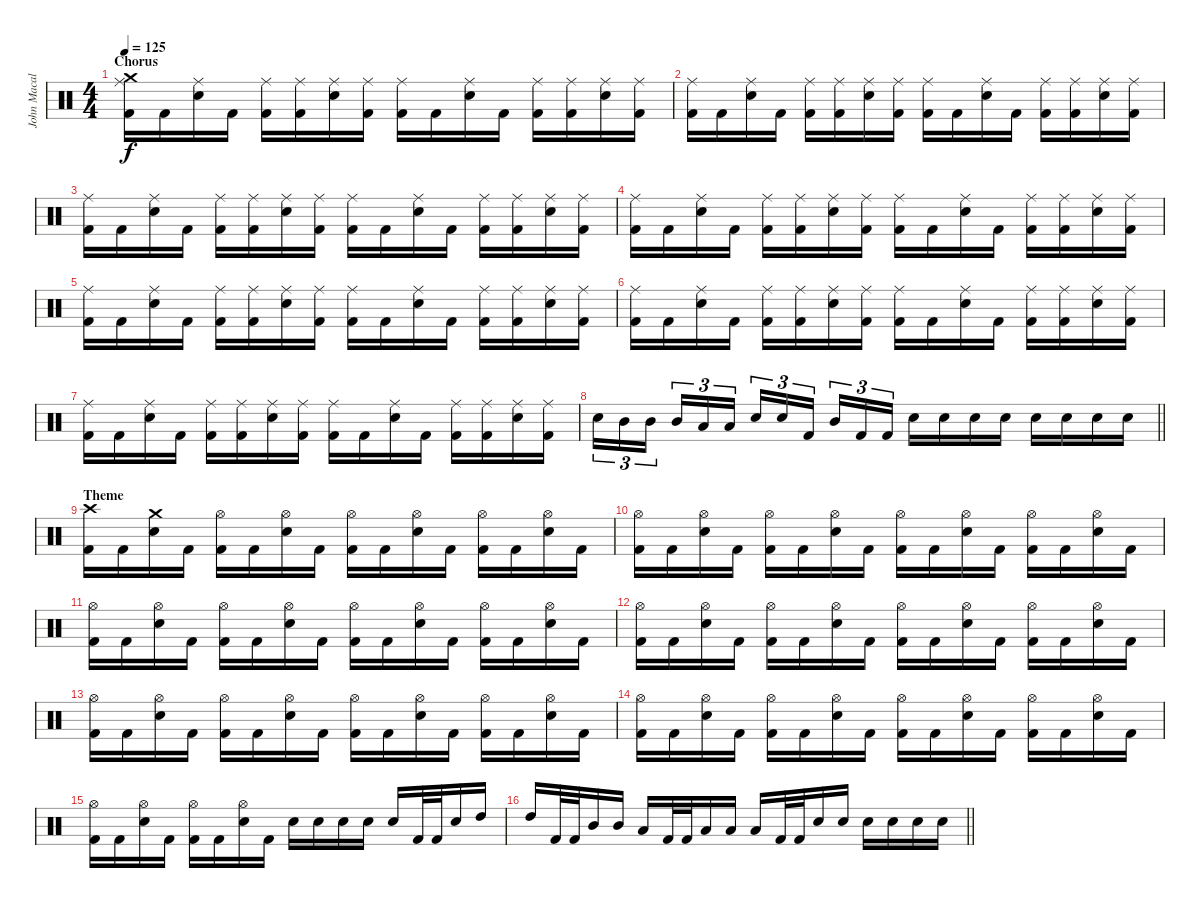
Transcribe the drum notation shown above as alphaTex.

\track ("John Macaluso " "John Macal") {instrument percussion}
\staff {score}
\articulation defaults
\ts (4 4)
\section ("" "Chorus")
\tempo 125
\clef neutral
\ks c
("Crash medium (hit)" "Ride (middle)" "Kick (hit) 2").16{dy f} "Kick (hit) 2".16 ("Ride (middle)" "Snare (hit) 2").16 "Kick (hit) 2".16 ("Ride (middle)" "Kick (hit) 2").16 ("Ride (middle)" "Kick (hit) 2").16 ("Ride (middle)" "Snare (hit) 2").16 ("Ride (middle)" "Kick (hit) 2").16 ("Ride (middle)" "Kick (hit) 2").16 "Kick (hit) 2".16 ("Ride (middle)" "Snare (hit) 2").16 "Kick (hit) 2".16 ("Ride (middle)" "Kick (hit) 2").16 ("Ride (middle)" "Kick (hit) 2").16 ("Ride (middle)" "Snare (hit) 2").16 ("Ride (middle)" "Kick (hit) 2").16 |
("Ride (middle)" "Kick (hit) 2").16 "Kick (hit) 2".16 ("Ride (middle)" "Snare (hit) 2").16 "Kick (hit) 2".16 ("Ride (middle)" "Kick (hit) 2").16 ("Ride (middle)" "Kick (hit) 2").16 ("Ride (middle)" "Snare (hit) 2").16 ("Ride (middle)" "Kick (hit) 2").16 ("Ride (middle)" "Kick (hit) 2").16 "Kick (hit) 2".16 ("Ride (middle)" "Snare (hit) 2").16 "Kick (hit) 2".16 ("Ride (middle)" "Kick (hit) 2").16 ("Ride (middle)" "Kick (hit) 2").16 ("Ride (middle)" "Snare (hit) 2").16 ("Ride (middle)" "Kick (hit) 2").16 |
("Ride (middle)" "Kick (hit) 2").16 "Kick (hit) 2".16 ("Ride (middle)" "Snare (hit) 2").16 "Kick (hit) 2".16 ("Ride (middle)" "Kick (hit) 2").16 ("Ride (middle)" "Kick (hit) 2").16 ("Ride (middle)" "Snare (hit) 2").16 ("Ride (middle)" "Kick (hit) 2").16 ("Ride (middle)" "Kick (hit) 2").16 "Kick (hit) 2".16 ("Ride (middle)" "Snare (hit) 2").16 "Kick (hit) 2".16 ("Ride (middle)" "Kick (hit) 2").16 ("Ride (middle)" "Kick (hit) 2").16 ("Ride (middle)" "Snare (hit) 2").16 ("Ride (middle)" "Kick (hit) 2").16 |
("Ride (middle)" "Kick (hit) 2").16 "Kick (hit) 2".16 ("Ride (middle)" "Snare (hit) 2").16 "Kick (hit) 2".16 ("Ride (middle)" "Kick (hit) 2").16 ("Ride (middle)" "Kick (hit) 2").16 ("Ride (middle)" "Snare (hit) 2").16 ("Ride (middle)" "Kick (hit) 2").16 ("Ride (middle)" "Kick (hit) 2").16 "Kick (hit) 2".16 ("Ride (middle)" "Snare (hit) 2").16 "Kick (hit) 2".16 ("Ride (middle)" "Kick (hit) 2").16 ("Ride (middle)" "Kick (hit) 2").16 ("Ride (middle)" "Snare (hit) 2").16 ("Ride (middle)" "Kick (hit) 2").16 |
("Ride (middle)" "Kick (hit) 2").16 "Kick (hit) 2".16 ("Ride (middle)" "Snare (hit) 2").16 "Kick (hit) 2".16 ("Ride (middle)" "Kick (hit) 2").16 ("Ride (middle)" "Kick (hit) 2").16 ("Ride (middle)" "Snare (hit) 2").16 ("Ride (middle)" "Kick (hit) 2").16 ("Ride (middle)" "Kick (hit) 2").16 "Kick (hit) 2".16 ("Ride (middle)" "Snare (hit) 2").16 "Kick (hit) 2".16 ("Ride (middle)" "Kick (hit) 2").16 ("Ride (middle)" "Kick (hit) 2").16 ("Ride (middle)" "Snare (hit) 2").16 ("Ride (middle)" "Kick (hit) 2").16 |
("Ride (middle)" "Kick (hit) 2").16 "Kick (hit) 2".16 ("Ride (middle)" "Snare (hit) 2").16 "Kick (hit) 2".16 ("Ride (middle)" "Kick (hit) 2").16 ("Ride (middle)" "Kick (hit) 2").16 ("Ride (middle)" "Snare (hit) 2").16 ("Ride (middle)" "Kick (hit) 2").16 ("Ride (middle)" "Kick (hit) 2").16 "Kick (hit) 2".16 ("Ride (middle)" "Snare (hit) 2").16 "Kick (hit) 2".16 ("Ride (middle)" "Kick (hit) 2").16 ("Ride (middle)" "Kick (hit) 2").16 ("Ride (middle)" "Snare (hit) 2").16 ("Ride (middle)" "Kick (hit) 2").16 |
("Ride (middle)" "Kick (hit) 2").16 "Kick (hit) 2".16 ("Ride (middle)" "Snare (hit) 2").16 "Kick (hit) 2".16 ("Ride (middle)" "Kick (hit) 2").16 ("Ride (middle)" "Kick (hit) 2").16 ("Ride (middle)" "Snare (hit) 2").16 ("Ride (middle)" "Kick (hit) 2").16 ("Ride (middle)" "Kick (hit) 2").16 "Kick (hit) 2".16 ("Ride (middle)" "Snare (hit) 2").16 "Kick (hit) 2".16 ("Ride (middle)" "Kick (hit) 2").16 ("Ride (middle)" "Kick (hit) 2").16 ("Ride (middle)" "Snare (hit) 2").16 ("Ride (middle)" "Kick (hit) 2").16 |
\barLineRight lightlight "Snare (hit) 2".16{tu (3 2)} "Mid Tom (hit)".16{tu (3 2)} "Mid Tom (hit)".16{tu (3 2) beam splitsecondary} "Mid Tom (hit)".16{tu (3 2)} "Low Tom (hit)".16{tu (3 2)} "Low Tom (hit)".16{tu (3 2)} "Snare (hit) 2".16{tu (3 2)} "Snare (hit) 2".16{tu (3 2)} "Kick (hit) 2".16{tu (3 2) beam splitsecondary} "Mid Tom (hit)".16{tu (3 2)} "Kick (hit) 2".16{tu (3 2)} "Kick (hit) 2".16{tu (3 2)} "Snare (hit) 2".16 "Snare (hit) 2".16 "Snare (hit) 2".16 "Snare (hit) 2".16 "Snare (hit) 2".16 "Snare (hit) 2".16 "Snare (hit) 2".16 "Snare (hit) 2".16
|
\section ("" "Theme")
("Crash high (hit)" "Kick (hit) 2").16 "Kick (hit) 2".16 ("Crash medium (hit)" "Snare (hit) 2").16 "Kick (hit) 2".16 ("Hi-Hat (open)" "Kick (hit) 2").16 "Kick (hit) 2".16 ("Hi-Hat (open)" "Snare (hit) 2").16 "Kick (hit) 2".16 ("Hi-Hat (open)" "Kick (hit) 2").16 "Kick (hit) 2".16 ("Hi-Hat (open)" "Snare (hit) 2").16 "Kick (hit) 2".16 ("Hi-Hat (open)" "Kick (hit) 2").16 "Kick (hit) 2".16 ("Hi-Hat (open)" "Snare (hit) 2").16 "Kick (hit) 2".16 |
("Hi-Hat (open)" "Kick (hit) 2").16 "Kick (hit) 2".16 ("Hi-Hat (open)" "Snare (hit) 2").16 "Kick (hit) 2".16 ("Hi-Hat (open)" "Kick (hit) 2").16 "Kick (hit) 2".16 ("Hi-Hat (open)" "Snare (hit) 2").16 "Kick (hit) 2".16 ("Hi-Hat (open)" "Kick (hit) 2").16 "Kick (hit) 2".16 ("Hi-Hat (open)" "Snare (hit) 2").16 "Kick (hit) 2".16 ("Hi-Hat (open)" "Kick (hit) 2").16 "Kick (hit) 2".16 ("Hi-Hat (open)" "Snare (hit) 2").16 "Kick (hit) 2".16 |
("Hi-Hat (open)" "Kick (hit) 2").16 "Kick (hit) 2".16 ("Hi-Hat (open)" "Snare (hit) 2").16 "Kick (hit) 2".16 ("Hi-Hat (open)" "Kick (hit) 2").16 "Kick (hit) 2".16 ("Hi-Hat (open)" "Snare (hit) 2").16 "Kick (hit) 2".16 ("Hi-Hat (open)" "Kick (hit) 2").16 "Kick (hit) 2".16 ("Hi-Hat (open)" "Snare (hit) 2").16 "Kick (hit) 2".16 ("Hi-Hat (open)" "Kick (hit) 2").16 "Kick (hit) 2".16 ("Hi-Hat (open)" "Snare (hit) 2").16 "Kick (hit) 2".16 |
("Hi-Hat (open)" "Kick (hit) 2").16 "Kick (hit) 2".16 ("Hi-Hat (open)" "Snare (hit) 2").16 "Kick (hit) 2".16 ("Hi-Hat (open)" "Kick (hit) 2").16 "Kick (hit) 2".16 ("Hi-Hat (open)" "Snare (hit) 2").16 "Kick (hit) 2".16 ("Hi-Hat (open)" "Kick (hit) 2").16 "Kick (hit) 2".16 ("Hi-Hat (open)" "Snare (hit) 2").16 "Kick (hit) 2".16 ("Hi-Hat (open)" "Kick (hit) 2").16 "Kick (hit) 2".16 ("Hi-Hat (open)" "Snare (hit) 2").16 "Kick (hit) 2".16 |
("Hi-Hat (open)" "Kick (hit) 2").16 "Kick (hit) 2".16 ("Hi-Hat (open)" "Snare (hit) 2").16 "Kick (hit) 2".16 ("Hi-Hat (open)" "Kick (hit) 2").16 "Kick (hit) 2".16 ("Hi-Hat (open)" "Snare (hit) 2").16 "Kick (hit) 2".16 ("Hi-Hat (open)" "Kick (hit) 2").16 "Kick (hit) 2".16 ("Hi-Hat (open)" "Snare (hit) 2").16 "Kick (hit) 2".16 ("Hi-Hat (open)" "Kick (hit) 2").16 "Kick (hit) 2".16 ("Hi-Hat (open)" "Snare (hit) 2").16 "Kick (hit) 2".16 |
("Hi-Hat (open)" "Kick (hit) 2").16 "Kick (hit) 2".16 ("Hi-Hat (open)" "Snare (hit) 2").16 "Kick (hit) 2".16 ("Hi-Hat (open)" "Kick (hit) 2").16 "Kick (hit) 2".16 ("Hi-Hat (open)" "Snare (hit) 2").16 "Kick (hit) 2".16 ("Hi-Hat (open)" "Kick (hit) 2").16 "Kick (hit) 2".16 ("Hi-Hat (open)" "Snare (hit) 2").16 "Kick (hit) 2".16 ("Hi-Hat (open)" "Kick (hit) 2").16 "Kick (hit) 2".16 ("Hi-Hat (open)" "Snare (hit) 2").16 "Kick (hit) 2".16 |
("Hi-Hat (open)" "Kick (hit) 2").16 "Kick (hit) 2".16 ("Hi-Hat (open)" "Snare (hit) 2").16 "Kick (hit) 2".16 ("Hi-Hat (open)" "Kick (hit) 2").16 "Kick (hit) 2".16 ("Hi-Hat (open)" "Snare (hit) 2").16 "Kick (hit) 2".16 "Snare (hit) 2".16 "Snare (hit) 2".16 "Snare (hit) 2".16 "Snare (hit) 2".16 "Snare (hit) 2".16 "Kick (hit) 2".32 "Kick (hit) 2".32 "Snare (hit) 2".16 "High Tom (hit)".16 |
\barLineRight lightlight "High Tom (hit)".16 "Kick (hit) 2".32 "Kick (hit) 2".32 "Mid Tom (hit)".16 "Mid Tom (hit)".16 "Low Tom (hit)".16 "Kick (hit) 2".32 "Kick (hit) 2".32 "Low Tom (hit)".16 "Low Tom (hit)".16 "Low Tom (hit)".16 "Kick (hit) 2".32 "Kick (hit) 2".32 "Snare (hit) 2".16 "Snare (hit) 2".16 "Snare (hit) 2".16 "Snare (hit) 2".16 "Snare (hit) 2".16 "Snare (hit) 2".16
